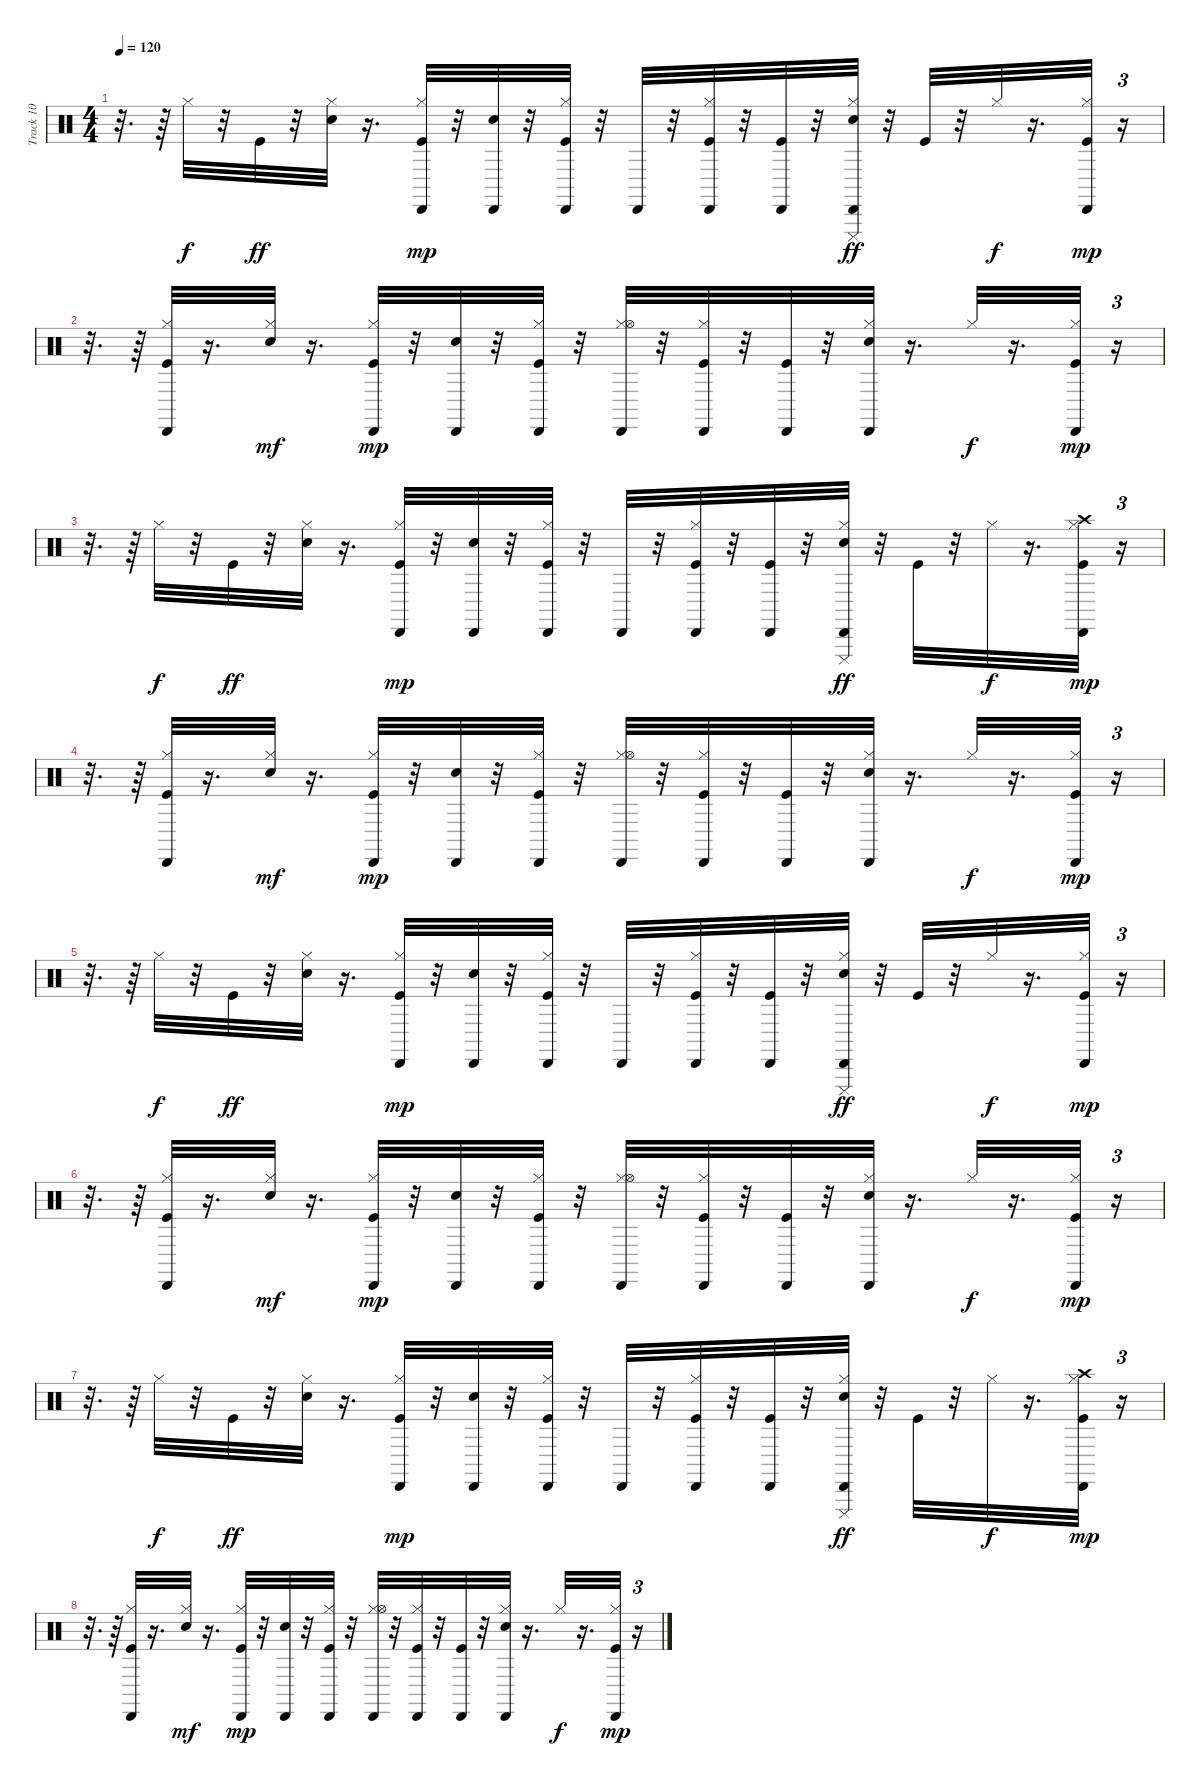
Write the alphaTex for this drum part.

\track ("Track 10" "Track 10") {instrument percussion}
\staff {score}
\articulation defaults
\ts (4 4)
\tempo 120
\clef neutral
\ks c
r.32{d dy mp} r.64 "Hi-Hat (closed)".32{dy f} r.32 "Kick (hit)".32{dy ff} r.32 ("Electric Snare (hit)" "Hi-Hat (closed)").32 r.16{d} ("Kick (hit)" "Hi-Hat (closed)" "Cabasa (hit)").32{dy mp} r.32 ("Electric Snare (hit)" "Cabasa (hit)").32 r.32 ("Kick (hit)" "Hi-Hat (closed)" "Cabasa (hit)").32 r.32 "Cabasa (hit)".32 r.32 ("Kick (hit)" "Hi-Hat (closed)" "Cabasa (hit)").32 r.32 ("Kick (hit)" "Cabasa (hit)").32 r.32 ("Electric Snare (hit)" "Hi-Hat (closed)" "Cabasa (hit)" "Cuica (mute)").32{dy ff} r.32 "Kick (hit)".32 r.32 "Hi-Hat (closed)".32{dy f} r.16{d} ("Kick (hit)" "Hi-Hat (closed)" "Cabasa (hit)").32{dy mp} r.16{tu (3 2)} |
r.32{d} r.64 ("Kick (hit)" "Hi-Hat (closed)" "Cabasa (hit)").32 r.16{d} ("Electric Snare (hit)" "Hi-Hat (closed)").32{dy mf} r.16{d} ("Kick (hit)" "Hi-Hat (closed)" "Cabasa (hit)").32{dy mp} r.32 ("Electric Snare (hit)" "Cabasa (hit)").32 r.32 ("Kick (hit)" "Hi-Hat (closed)" "Cabasa (hit)").32 r.32 ("Hi-Hat (closed)" "Hi-Hat (open)" "Cabasa (hit)").32 r.32 ("Kick (hit)" "Hi-Hat (closed)" "Cabasa (hit)").32 r.32 ("Kick (hit)" "Cabasa (hit)").32 r.32 ("Electric Snare (hit)" "Hi-Hat (closed)" "Cabasa (hit)").32 r.16{d} "Hi-Hat (closed)".32{dy f} r.16{d} ("Kick (hit)" "Hi-Hat (closed)" "Cabasa (hit)").32{dy mp} r.16{tu (3 2)} |
r.32{d} r.64 "Hi-Hat (closed)".32{dy f} r.32 "Kick (hit)".32{dy ff} r.32 ("Electric Snare (hit)" "Hi-Hat (closed)").32 r.16{d} ("Kick (hit)" "Hi-Hat (closed)" "Cabasa (hit)").32{dy mp} r.32 ("Electric Snare (hit)" "Cabasa (hit)").32 r.32 ("Kick (hit)" "Hi-Hat (closed)" "Cabasa (hit)").32 r.32 "Cabasa (hit)".32 r.32 ("Kick (hit)" "Hi-Hat (closed)" "Cabasa (hit)").32 r.32 ("Kick (hit)" "Cabasa (hit)").32 r.32 ("Electric Snare (hit)" "Hi-Hat (closed)" "Cabasa (hit)" "Cuica (mute)").32{dy ff} r.32 "Kick (hit)".32 r.32 "Hi-Hat (closed)".32{dy f} r.16{d} ("Kick (hit)" "Hi-Hat (closed)" "Crash high (hit)" "Cabasa (hit)").32{dy mp} r.16{tu (3 2)} |
r.32{d} r.64 ("Kick (hit)" "Hi-Hat (closed)" "Cabasa (hit)").32 r.16{d} ("Electric Snare (hit)" "Hi-Hat (closed)").32{dy mf} r.16{d} ("Kick (hit)" "Hi-Hat (closed)" "Cabasa (hit)").32{dy mp} r.32 ("Electric Snare (hit)" "Cabasa (hit)").32 r.32 ("Kick (hit)" "Hi-Hat (closed)" "Cabasa (hit)").32 r.32 ("Hi-Hat (closed)" "Hi-Hat (open)" "Cabasa (hit)").32 r.32 ("Kick (hit)" "Hi-Hat (closed)" "Cabasa (hit)").32 r.32 ("Kick (hit)" "Cabasa (hit)").32 r.32 ("Electric Snare (hit)" "Hi-Hat (closed)" "Cabasa (hit)").32 r.16{d} "Hi-Hat (closed)".32{dy f} r.16{d} ("Kick (hit)" "Hi-Hat (closed)" "Cabasa (hit)").32{dy mp} r.16{tu (3 2)} |
r.32{d} r.64 "Hi-Hat (closed)".32{dy f} r.32 "Kick (hit)".32{dy ff} r.32 ("Electric Snare (hit)" "Hi-Hat (closed)").32 r.16{d} ("Kick (hit)" "Hi-Hat (closed)" "Cabasa (hit)").32{dy mp} r.32 ("Electric Snare (hit)" "Cabasa (hit)").32 r.32 ("Kick (hit)" "Hi-Hat (closed)" "Cabasa (hit)").32 r.32 "Cabasa (hit)".32 r.32 ("Kick (hit)" "Hi-Hat (closed)" "Cabasa (hit)").32 r.32 ("Kick (hit)" "Cabasa (hit)").32 r.32 ("Electric Snare (hit)" "Hi-Hat (closed)" "Cabasa (hit)" "Cuica (mute)").32{dy ff} r.32 "Kick (hit)".32 r.32 "Hi-Hat (closed)".32{dy f} r.16{d} ("Kick (hit)" "Hi-Hat (closed)" "Cabasa (hit)").32{dy mp} r.16{tu (3 2)} |
r.32{d} r.64 ("Kick (hit)" "Hi-Hat (closed)" "Cabasa (hit)").32 r.16{d} ("Electric Snare (hit)" "Hi-Hat (closed)").32{dy mf} r.16{d} ("Kick (hit)" "Hi-Hat (closed)" "Cabasa (hit)").32{dy mp} r.32 ("Electric Snare (hit)" "Cabasa (hit)").32 r.32 ("Kick (hit)" "Hi-Hat (closed)" "Cabasa (hit)").32 r.32 ("Hi-Hat (closed)" "Hi-Hat (open)" "Cabasa (hit)").32 r.32 ("Kick (hit)" "Hi-Hat (closed)" "Cabasa (hit)").32 r.32 ("Kick (hit)" "Cabasa (hit)").32 r.32 ("Electric Snare (hit)" "Hi-Hat (closed)" "Cabasa (hit)").32 r.16{d} "Hi-Hat (closed)".32{dy f} r.16{d} ("Kick (hit)" "Hi-Hat (closed)" "Cabasa (hit)").32{dy mp} r.16{tu (3 2)} |
r.32{d} r.64 "Hi-Hat (closed)".32{dy f} r.32 "Kick (hit)".32{dy ff} r.32 ("Electric Snare (hit)" "Hi-Hat (closed)").32 r.16{d} ("Kick (hit)" "Hi-Hat (closed)" "Cabasa (hit)").32{dy mp} r.32 ("Electric Snare (hit)" "Cabasa (hit)").32 r.32 ("Kick (hit)" "Hi-Hat (closed)" "Cabasa (hit)").32 r.32 "Cabasa (hit)".32 r.32 ("Kick (hit)" "Hi-Hat (closed)" "Cabasa (hit)").32 r.32 ("Kick (hit)" "Cabasa (hit)").32 r.32 ("Electric Snare (hit)" "Hi-Hat (closed)" "Cabasa (hit)" "Cuica (mute)").32{dy ff} r.32 "Kick (hit)".32 r.32 "Hi-Hat (closed)".32{dy f} r.16{d} ("Kick (hit)" "Hi-Hat (closed)" "Crash high (hit)" "Cabasa (hit)").32{dy mp} r.16{tu (3 2)} |
r.32{d} r.64 ("Kick (hit)" "Hi-Hat (closed)" "Cabasa (hit)").32 r.16{d} ("Electric Snare (hit)" "Hi-Hat (closed)").32{dy mf} r.16{d} ("Kick (hit)" "Hi-Hat (closed)" "Cabasa (hit)").32{dy mp} r.32 ("Electric Snare (hit)" "Cabasa (hit)").32 r.32 ("Kick (hit)" "Hi-Hat (closed)" "Cabasa (hit)").32 r.32 ("Hi-Hat (closed)" "Hi-Hat (open)" "Cabasa (hit)").32 r.32 ("Kick (hit)" "Hi-Hat (closed)" "Cabasa (hit)").32 r.32 ("Kick (hit)" "Cabasa (hit)").32 r.32 ("Electric Snare (hit)" "Hi-Hat (closed)" "Cabasa (hit)").32 r.16{d} "Hi-Hat (closed)".32{dy f} r.16{d} ("Kick (hit)" "Hi-Hat (closed)" "Cabasa (hit)").32{dy mp} r.16{tu (3 2)}
